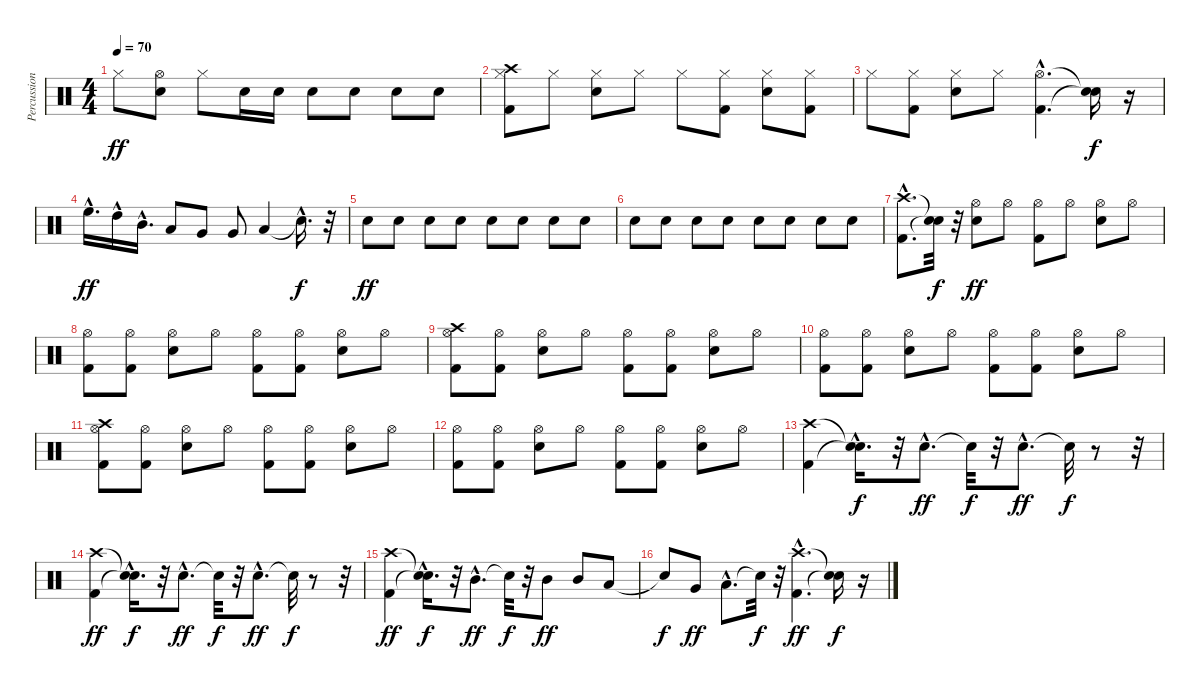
\track ("Percussions" "Percussion") {instrument percussion}
\staff {score}
\articulation defaults
\ts (4 4)
\tempo 70
\clef neutral
\ks c "Hi-Hat (closed)".8{dy ff}
("Snare (hit) 2" "Hi-Hat (open)").8 "Hi-Hat (closed)".8 "Snare (hit) 2".16 "Snare (hit) 2".16 "Snare (hit) 2".8 "Snare (hit) 2".8 "Snare (hit) 2".8 "Snare (hit) 2".8 |
("Kick (hit) 2" "Hi-Hat (closed)" "Crash high (hit)").8 "Hi-Hat (closed)".8 ("Snare (hit) 2" "Hi-Hat (closed)").8 "Hi-Hat (closed)".8 "Hi-Hat (closed)".8 ("Kick (hit) 2" "Hi-Hat (closed)").8 ("Snare (hit) 2" "Hi-Hat (closed)").8 ("Kick (hit) 2" "Hi-Hat (closed)").8 |
"Hi-Hat (closed)".8 ("Kick (hit) 2" "Hi-Hat (closed)").8 ("Snare (hit) 2" "Hi-Hat (closed)").8 "Hi-Hat (closed)".8 ("Kick (hit) 2"{hac} "Hi-Hat (open)"{hac}).4{d} ("Snare (hit)"{t} "Snare (hit)"{t}).16{dy f} r.16 |
"High Floor Tom (hit)"{hac}.16{d dy ff} "High Tom (hit)"{hac}.16 "Mid Tom (hit)"{hac}.16{d} "Low Tom (hit)".8 "Very Low Tom (hit)".8 "Very Low Tom (hit)".8 "Low Floor Tom (hit)".4 "Snare (hit)"{hac t}.16{d dy f} r.32 |
"Snare (hit) 2".8{dy ff} "Snare (hit) 2".8 "Snare (hit) 2".8 "Snare (hit) 2".8 "Snare (hit) 2".8 "Snare (hit) 2".8 "Snare (hit) 2".8 "Snare (hit) 2".8 |
"Snare (hit) 2".8 "Snare (hit) 2".8 "Snare (hit) 2".8 "Snare (hit) 2".8 "Snare (hit) 2".8 "Snare (hit) 2".8 "Snare (hit) 2".8 "Snare (hit) 2".8 |
("Kick (hit) 2"{hac} "Crash high (hit)"{hac}).8{d} ("Snare (hit)"{t} "Snare (hit)"{t}).32{dy f} r.32 ("Snare (hit) 2" "Hi-Hat (open)").8{dy ff} "Hi-Hat (open)".8 ("Kick (hit) 2" "Hi-Hat (open)").8 "Hi-Hat (open)".8 ("Snare (hit) 2" "Hi-Hat (open)").8 "Hi-Hat (open)".8 |
("Kick (hit) 2" "Hi-Hat (open)").8 ("Kick (hit) 2" "Hi-Hat (open)").8 ("Snare (hit) 2" "Hi-Hat (open)").8 "Hi-Hat (open)".8 ("Kick (hit) 2" "Hi-Hat (open)").8 ("Kick (hit) 2" "Hi-Hat (open)").8 ("Snare (hit) 2" "Hi-Hat (open)").8 "Hi-Hat (open)".8 |
("Kick (hit) 2" "Hi-Hat (open)" "Crash high (hit)").8 ("Kick (hit) 2" "Hi-Hat (open)").8 ("Snare (hit) 2" "Hi-Hat (open)").8 "Hi-Hat (open)".8 ("Kick (hit) 2" "Hi-Hat (open)").8 ("Kick (hit) 2" "Hi-Hat (open)").8 ("Snare (hit) 2" "Hi-Hat (open)").8 "Hi-Hat (open)".8 |
("Kick (hit) 2" "Hi-Hat (open)").8 ("Kick (hit) 2" "Hi-Hat (open)").8 ("Snare (hit) 2" "Hi-Hat (open)").8 "Hi-Hat (open)".8 ("Kick (hit) 2" "Hi-Hat (open)").8 ("Kick (hit) 2" "Hi-Hat (open)").8 ("Snare (hit) 2" "Hi-Hat (open)").8 "Hi-Hat (open)".8 |
("Kick (hit) 2" "Hi-Hat (open)" "Crash high (hit)").8 ("Kick (hit) 2" "Hi-Hat (open)").8 ("Snare (hit) 2" "Hi-Hat (open)").8 "Hi-Hat (open)".8 ("Kick (hit) 2" "Hi-Hat (open)").8 ("Kick (hit) 2" "Hi-Hat (open)").8 ("Snare (hit) 2" "Hi-Hat (open)").8 "Hi-Hat (open)".8 |
("Kick (hit) 2" "Hi-Hat (open)").8 ("Kick (hit) 2" "Hi-Hat (open)").8 ("Snare (hit) 2" "Hi-Hat (open)").8 "Hi-Hat (open)".8 ("Kick (hit) 2" "Hi-Hat (open)").8 ("Kick (hit) 2" "Hi-Hat (open)").8 ("Snare (hit) 2" "Hi-Hat (open)").8 "Hi-Hat (open)".8 |
("Kick (hit) 2" "Crash high (hit)").4 ("Snare (hit)"{hac t} "Snare (hit)"{hac t}).16{d dy f} r.32 "Snare (hit) 2"{hac}.8{d dy ff} "Snare (hit)"{t}.32{dy f} r.32 "Snare (hit) 2"{hac}.8{d dy ff} "Snare (hit)"{t}.32{dy f} r.8 r.32 |
("Kick (hit) 2" "Crash high (hit)").4{dy ff} ("Snare (hit)"{hac t} "Snare (hit)"{hac t}).16{d dy f} r.32 "Snare (hit) 2"{hac}.8{d dy ff} "Snare (hit)"{t}.32{dy f} r.32 "Snare (hit) 2"{hac}.8{d dy ff} "Snare (hit)"{t}.32{dy f} r.8 r.32 |
("Kick (hit) 2" "Crash high (hit)").4{dy ff} ("Snare (hit)"{hac t} "Snare (hit)"{hac t}).16{d dy f} r.32 "Mid Tom (hit)"{hac}.8{d dy ff} "Snare (hit)"{t}.32{dy f} r.32 "Mid Tom (hit)".8{dy ff} "Mid Tom (hit)".8 "Low Tom (hit)".8 |
"Snare (hit)"{t}.8{dy f} "Very Low Tom (hit)".8{dy ff} "Low Floor Tom (hit)"{hac}.8{d} "Snare (hit)"{t}.32{dy f} r.32 ("Kick (hit) 2"{hac} "Crash high (hit)"{hac}).4{d dy ff} ("Snare (hit)"{t} "Snare (hit)"{t}).16{dy f} r.16
